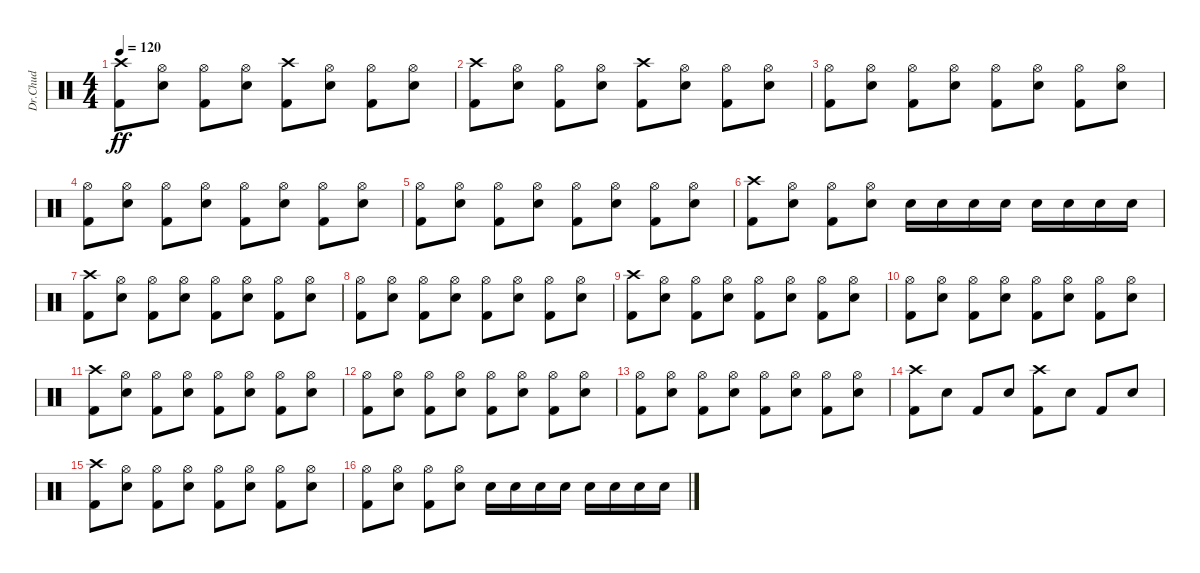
\track ("Dr.Chud" "Dr.Chud") {instrument percussion}
\staff {score}
\articulation defaults
\ts (4 4)
\tempo 120
\clef neutral
\ks c
("Crash high (hit)" "Kick (hit) 2").8{dy ff} ("Hi-Hat (open)" "Electric Snare (hit)").8 ("Hi-Hat (open)" "Kick (hit) 2").8 ("Hi-Hat (open)" "Electric Snare (hit)").8 ("Crash high (hit)" "Kick (hit) 2").8 ("Hi-Hat (open)" "Electric Snare (hit)").8 ("Hi-Hat (open)" "Kick (hit) 2").8 ("Hi-Hat (open)" "Electric Snare (hit)").8 |
("Crash high (hit)" "Kick (hit) 2").8 ("Hi-Hat (open)" "Electric Snare (hit)").8 ("Hi-Hat (open)" "Kick (hit) 2").8 ("Hi-Hat (open)" "Electric Snare (hit)").8 ("Crash high (hit)" "Kick (hit) 2").8 ("Hi-Hat (open)" "Electric Snare (hit)").8 ("Hi-Hat (open)" "Kick (hit) 2").8 ("Hi-Hat (open)" "Electric Snare (hit)").8 |
("Hi-Hat (open)" "Kick (hit) 2").8 ("Hi-Hat (open)" "Electric Snare (hit)").8 ("Hi-Hat (open)" "Kick (hit) 2").8 ("Hi-Hat (open)" "Electric Snare (hit)").8 ("Hi-Hat (open)" "Kick (hit) 2").8 ("Hi-Hat (open)" "Electric Snare (hit)").8 ("Hi-Hat (open)" "Kick (hit) 2").8 ("Hi-Hat (open)" "Electric Snare (hit)").8 |
("Hi-Hat (open)" "Kick (hit) 2").8 ("Hi-Hat (open)" "Electric Snare (hit)").8 ("Hi-Hat (open)" "Kick (hit) 2").8 ("Hi-Hat (open)" "Electric Snare (hit)").8 ("Hi-Hat (open)" "Kick (hit) 2").8 ("Hi-Hat (open)" "Electric Snare (hit)").8 ("Hi-Hat (open)" "Kick (hit) 2").8 ("Hi-Hat (open)" "Electric Snare (hit)").8 |
("Hi-Hat (open)" "Kick (hit) 2").8 ("Hi-Hat (open)" "Electric Snare (hit)").8 ("Hi-Hat (open)" "Kick (hit) 2").8 ("Hi-Hat (open)" "Electric Snare (hit)").8 ("Hi-Hat (open)" "Kick (hit) 2").8 ("Hi-Hat (open)" "Electric Snare (hit)").8 ("Hi-Hat (open)" "Kick (hit) 2").8 ("Hi-Hat (open)" "Electric Snare (hit)").8 |
("Crash high (hit)" "Kick (hit) 2").8 ("Hi-Hat (open)" "Electric Snare (hit)").8 ("Hi-Hat (open)" "Kick (hit) 2").8 ("Hi-Hat (open)" "Electric Snare (hit)").8 "Electric Snare (hit)".16 "Electric Snare (hit)".16 "Electric Snare (hit)".16 "Electric Snare (hit)".16 "Electric Snare (hit)".16 "Electric Snare (hit)".16 "Electric Snare (hit)".16 "Electric Snare (hit)".16 |
("Crash high (hit)" "Kick (hit) 2").8 ("Hi-Hat (open)" "Electric Snare (hit)").8 ("Hi-Hat (open)" "Kick (hit) 2").8 ("Hi-Hat (open)" "Electric Snare (hit)").8 ("Hi-Hat (open)" "Kick (hit) 2").8 ("Hi-Hat (open)" "Electric Snare (hit)").8 ("Hi-Hat (open)" "Kick (hit) 2").8 ("Hi-Hat (open)" "Electric Snare (hit)").8 |
("Hi-Hat (open)" "Kick (hit) 2").8 ("Hi-Hat (open)" "Electric Snare (hit)").8 ("Hi-Hat (open)" "Kick (hit) 2").8 ("Hi-Hat (open)" "Electric Snare (hit)").8 ("Hi-Hat (open)" "Kick (hit) 2").8 ("Hi-Hat (open)" "Electric Snare (hit)").8 ("Hi-Hat (open)" "Kick (hit) 2").8 ("Hi-Hat (open)" "Electric Snare (hit)").8 |
("Crash high (hit)" "Kick (hit) 2").8 ("Hi-Hat (open)" "Electric Snare (hit)").8 ("Hi-Hat (open)" "Kick (hit) 2").8 ("Hi-Hat (open)" "Electric Snare (hit)").8 ("Hi-Hat (open)" "Kick (hit) 2").8 ("Hi-Hat (open)" "Electric Snare (hit)").8 ("Hi-Hat (open)" "Kick (hit) 2").8 ("Hi-Hat (open)" "Electric Snare (hit)").8 |
("Hi-Hat (open)" "Kick (hit) 2").8 ("Hi-Hat (open)" "Electric Snare (hit)").8 ("Hi-Hat (open)" "Kick (hit) 2").8 ("Hi-Hat (open)" "Electric Snare (hit)").8 ("Hi-Hat (open)" "Kick (hit) 2").8 ("Hi-Hat (open)" "Electric Snare (hit)").8 ("Hi-Hat (open)" "Kick (hit) 2").8 ("Hi-Hat (open)" "Electric Snare (hit)").8 |
("Crash high (hit)" "Kick (hit) 2").8 ("Hi-Hat (open)" "Electric Snare (hit)").8 ("Hi-Hat (open)" "Kick (hit) 2").8 ("Hi-Hat (open)" "Electric Snare (hit)").8 ("Hi-Hat (open)" "Kick (hit) 2").8 ("Hi-Hat (open)" "Electric Snare (hit)").8 ("Hi-Hat (open)" "Kick (hit) 2").8 ("Hi-Hat (open)" "Electric Snare (hit)").8 |
("Hi-Hat (open)" "Kick (hit) 2").8 ("Hi-Hat (open)" "Electric Snare (hit)").8 ("Hi-Hat (open)" "Kick (hit) 2").8 ("Hi-Hat (open)" "Electric Snare (hit)").8 ("Hi-Hat (open)" "Kick (hit) 2").8 ("Hi-Hat (open)" "Electric Snare (hit)").8 ("Hi-Hat (open)" "Kick (hit) 2").8 ("Hi-Hat (open)" "Electric Snare (hit)").8 |
("Hi-Hat (open)" "Kick (hit) 2").8 ("Hi-Hat (open)" "Electric Snare (hit)").8 ("Hi-Hat (open)" "Kick (hit) 2").8 ("Hi-Hat (open)" "Electric Snare (hit)").8 ("Hi-Hat (open)" "Kick (hit) 2").8 ("Hi-Hat (open)" "Electric Snare (hit)").8 ("Hi-Hat (open)" "Kick (hit) 2").8 ("Hi-Hat (open)" "Electric Snare (hit)").8 |
("Crash high (hit)" "Kick (hit) 2").8 "Electric Snare (hit)".8 "Kick (hit) 2".8 "Electric Snare (hit)".8 ("Crash high (hit)" "Kick (hit) 2").8 "Electric Snare (hit)".8 "Kick (hit) 2".8 "Electric Snare (hit)".8 |
("Crash high (hit)" "Kick (hit) 2").8 ("Hi-Hat (open)" "Electric Snare (hit)").8 ("Hi-Hat (open)" "Kick (hit) 2").8 ("Hi-Hat (open)" "Electric Snare (hit)").8 ("Hi-Hat (open)" "Kick (hit) 2").8 ("Hi-Hat (open)" "Electric Snare (hit)").8 ("Hi-Hat (open)" "Kick (hit) 2").8 ("Hi-Hat (open)" "Electric Snare (hit)").8 |
("Hi-Hat (open)" "Kick (hit) 2").8 ("Hi-Hat (open)" "Electric Snare (hit)").8 ("Hi-Hat (open)" "Kick (hit) 2").8 ("Hi-Hat (open)" "Electric Snare (hit)").8 "Electric Snare (hit)".16 "Electric Snare (hit)".16 "Electric Snare (hit)".16 "Electric Snare (hit)".16 "Electric Snare (hit)".16 "Electric Snare (hit)".16 "Electric Snare (hit)".16 "Electric Snare (hit)".16
